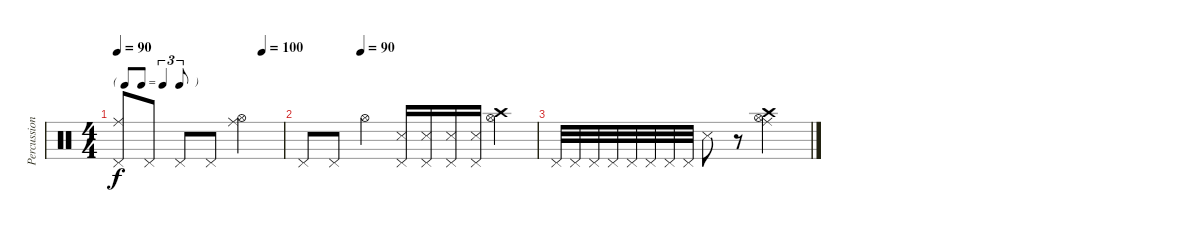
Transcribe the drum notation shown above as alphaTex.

\track ("Percussion" "Percussion") {instrument percussion}
\staff {score}
\articulation defaults
\ts (4 4)
\tf triplet8th
\tempo 90
\tempo (100 0.875)
\clef neutral
\ks c
("Ride (middle)" "Pedal Hi-Hat (hit)").8{dy f} "Pedal Hi-Hat (hit)".8 "Pedal Hi-Hat (hit)".8 "Pedal Hi-Hat (hit)".8 ("Ride (middle)" "Hi-Hat (open)").2 |
\tempo (90 0.25)
"Pedal Hi-Hat (hit)".8 "Pedal Hi-Hat (hit)".8 "Hi-Hat (open)".4 ("Pedal Hi-Hat (hit)" "Snare (side stick) 3").16 ("Pedal Hi-Hat (hit)" "Snare (side stick) 3").16 ("Pedal Hi-Hat (hit)" "Snare (side stick) 3").16 ("Pedal Hi-Hat (hit)" "Snare (side stick) 3").16 ("Hi-Hat (open)" "Crash high (hit)").4 |
"Pedal Hi-Hat (hit)".32 "Pedal Hi-Hat (hit)".32 "Pedal Hi-Hat (hit)".32 "Pedal Hi-Hat (hit)".32 "Pedal Hi-Hat (hit)".32 "Pedal Hi-Hat (hit)".32 "Pedal Hi-Hat (hit)".32 "Pedal Hi-Hat (hit)".32 "Snare (side stick) 3".8 r.8 ("Ride (middle)" "Crash high (hit)" "Hi-Hat (open)").2
